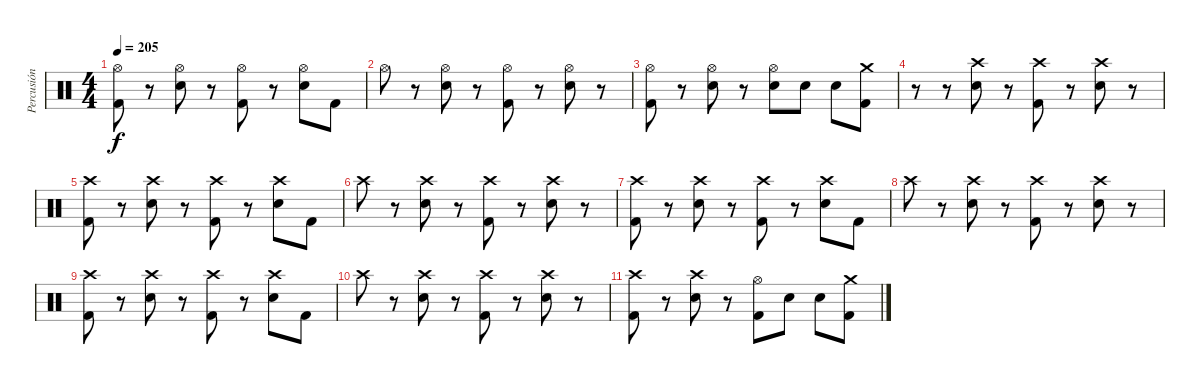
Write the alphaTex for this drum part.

\track ("Percusión" "Percusión") {instrument percussion}
\staff {score}
\articulation defaults
\ts (4 4)
\tempo 205
\clef neutral
\ks c
("Hi-Hat (open)" "Kick (hit) 2").8{dy f} r.8 ("Hi-Hat (open)" "Electric Snare (hit)").8 r.8 ("Hi-Hat (open)" "Kick (hit) 2").8 r.8 ("Hi-Hat (open)" "Electric Snare (hit)").8 "Kick (hit) 2".8 |
"Hi-Hat (open)".8 r.8 ("Hi-Hat (open)" "Electric Snare (hit)").8 r.8 ("Hi-Hat (open)" "Kick (hit) 2").8 r.8 ("Hi-Hat (open)" "Electric Snare (hit)").8 r.8 |
("Hi-Hat (open)" "Kick (hit) 2").8 r.8 ("Hi-Hat (open)" "Electric Snare (hit)").8 r.8 ("Hi-Hat (open)" "Electric Snare (hit)").8 "Electric Snare (hit)".8 "Electric Snare (hit)".8 ("Crash medium (hit)" "Kick (hit) 2").8 |
r.8 r.8 ("Crash high (hit)" "Electric Snare (hit)").8 r.8 ("Crash high (hit)" "Kick (hit) 2").8 r.8 ("Crash high (hit)" "Electric Snare (hit)").8 r.8 |
("Crash high (hit)" "Kick (hit) 2").8 r.8 ("Crash high (hit)" "Electric Snare (hit)").8 r.8 ("Crash high (hit)" "Kick (hit) 2").8 r.8 ("Crash high (hit)" "Electric Snare (hit)").8 "Kick (hit) 2".8 |
"Crash high (hit)".8 r.8 ("Crash high (hit)" "Electric Snare (hit)").8 r.8 ("Crash high (hit)" "Kick (hit) 2").8 r.8 ("Crash high (hit)" "Electric Snare (hit)").8 r.8 |
("Crash high (hit)" "Kick (hit) 2").8 r.8 ("Crash high (hit)" "Electric Snare (hit)").8 r.8 ("Crash high (hit)" "Kick (hit) 2").8 r.8 ("Crash high (hit)" "Electric Snare (hit)").8 "Kick (hit) 2".8 |
"Crash high (hit)".8 r.8 ("Crash high (hit)" "Electric Snare (hit)").8 r.8 ("Crash high (hit)" "Kick (hit) 2").8 r.8 ("Crash high (hit)" "Electric Snare (hit)").8 r.8 |
("Crash high (hit)" "Kick (hit) 2").8 r.8 ("Crash high (hit)" "Electric Snare (hit)").8 r.8 ("Crash high (hit)" "Kick (hit) 2").8 r.8 ("Crash high (hit)" "Electric Snare (hit)").8 "Kick (hit) 2".8 |
"Crash high (hit)".8 r.8 ("Crash high (hit)" "Electric Snare (hit)").8 r.8 ("Crash high (hit)" "Kick (hit) 2").8 r.8 ("Crash high (hit)" "Electric Snare (hit)").8 r.8 |
("Crash high (hit)" "Kick (hit) 2").8 r.8 ("Crash high (hit)" "Electric Snare (hit)").8 r.8 ("Hi-Hat (open)" "Kick (hit) 2").8 "Electric Snare (hit)".8 "Electric Snare (hit)".8 ("Crash medium (hit)" "Kick (hit) 2").8
